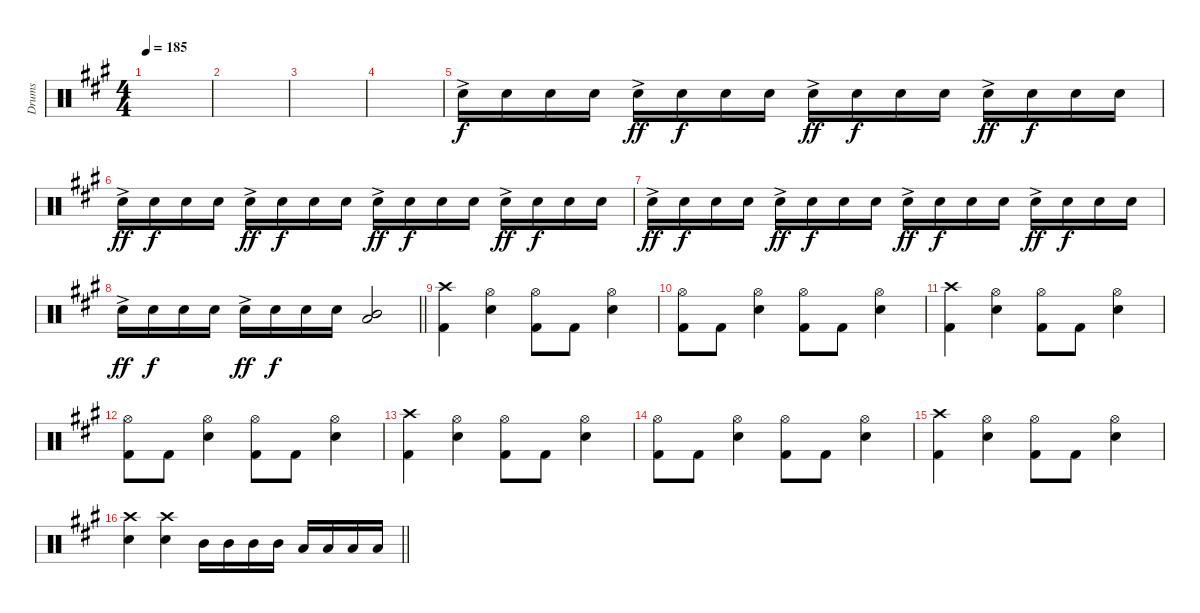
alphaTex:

\track ("Drums" "Drums") {instrument percussion}
\staff {score}
\articulation defaults
\ts (4 4)
\tempo 185
\clef neutral
\ks a
|
|
|
|
"Electric Snare (hit)"{ac}.16 "Electric Snare (hit)".16{dy f} "Electric Snare (hit)".16 "Electric Snare (hit)".16 "Electric Snare (hit)"{ac}.16{dy ff} "Electric Snare (hit)".16{dy f} "Electric Snare (hit)".16 "Electric Snare (hit)".16 "Electric Snare (hit)"{ac}.16{dy ff} "Electric Snare (hit)".16{dy f} "Electric Snare (hit)".16 "Electric Snare (hit)".16 "Electric Snare (hit)"{ac}.16{dy ff} "Electric Snare (hit)".16{dy f} "Electric Snare (hit)".16 "Electric Snare (hit)".16 |
"Electric Snare (hit)"{ac}.16{dy ff} "Electric Snare (hit)".16{dy f} "Electric Snare (hit)".16 "Electric Snare (hit)".16 "Electric Snare (hit)"{ac}.16{dy ff} "Electric Snare (hit)".16{dy f} "Electric Snare (hit)".16 "Electric Snare (hit)".16 "Electric Snare (hit)"{ac}.16{dy ff} "Electric Snare (hit)".16{dy f} "Electric Snare (hit)".16 "Electric Snare (hit)".16 "Electric Snare (hit)"{ac}.16{dy ff} "Electric Snare (hit)".16{dy f} "Electric Snare (hit)".16 "Electric Snare (hit)".16 |
"Electric Snare (hit)"{ac}.16{dy ff} "Electric Snare (hit)".16{dy f} "Electric Snare (hit)".16 "Electric Snare (hit)".16 "Electric Snare (hit)"{ac}.16{dy ff} "Electric Snare (hit)".16{dy f} "Electric Snare (hit)".16 "Electric Snare (hit)".16 "Electric Snare (hit)"{ac}.16{dy ff} "Electric Snare (hit)".16{dy f} "Electric Snare (hit)".16 "Electric Snare (hit)".16 "Electric Snare (hit)"{ac}.16{dy ff} "Electric Snare (hit)".16{dy f} "Electric Snare (hit)".16 "Electric Snare (hit)".16 |
\barLineRight lightlight "Electric Snare (hit)"{ac}.16{dy ff} "Electric Snare (hit)".16{dy f} "Electric Snare (hit)".16 "Electric Snare (hit)".16 "Electric Snare (hit)"{ac}.16{dy ff} "Electric Snare (hit)".16{dy f} "Electric Snare (hit)".16 "Electric Snare (hit)".16
("Mid Tom (hit)" "Low Tom (hit)").2 |
("Crash high (hit)" "Kick (hit) 2").4 ("Hi-Hat (open)" "Electric Snare (hit)").4 ("Hi-Hat (open)" "Kick (hit) 2").8 "Kick (hit) 2".8 ("Hi-Hat (open)" "Electric Snare (hit)").4 |
("Hi-Hat (open)" "Kick (hit) 2").8 "Kick (hit) 2".8 ("Hi-Hat (open)" "Electric Snare (hit)").4 ("Hi-Hat (open)" "Kick (hit) 2").8 "Kick (hit) 2".8 ("Hi-Hat (open)" "Electric Snare (hit)").4 |
("Crash high (hit)" "Kick (hit) 2").4 ("Hi-Hat (open)" "Electric Snare (hit)").4 ("Hi-Hat (open)" "Kick (hit) 2").8 "Kick (hit) 2".8 ("Hi-Hat (open)" "Electric Snare (hit)").4 |
("Hi-Hat (open)" "Kick (hit) 2").8 "Kick (hit) 2".8 ("Hi-Hat (open)" "Electric Snare (hit)").4 ("Hi-Hat (open)" "Kick (hit) 2").8 "Kick (hit) 2".8 ("Hi-Hat (open)" "Electric Snare (hit)").4 |
("Crash high (hit)" "Kick (hit) 2").4 ("Hi-Hat (open)" "Electric Snare (hit)").4 ("Hi-Hat (open)" "Kick (hit) 2").8 "Kick (hit) 2".8 ("Hi-Hat (open)" "Electric Snare (hit)").4 |
("Hi-Hat (open)" "Kick (hit) 2").8 "Kick (hit) 2".8 ("Hi-Hat (open)" "Electric Snare (hit)").4 ("Hi-Hat (open)" "Kick (hit) 2").8 "Kick (hit) 2".8 ("Hi-Hat (open)" "Electric Snare (hit)").4 |
("Crash high (hit)" "Kick (hit) 2").4 ("Hi-Hat (open)" "Electric Snare (hit)").4 ("Hi-Hat (open)" "Kick (hit) 2").8 "Kick (hit) 2".8 ("Hi-Hat (open)" "Electric Snare (hit)").4 |
\barLineRight lightlight
("Crash high (hit)" "Electric Snare (hit)").4 ("Crash high (hit)" "Electric Snare (hit)").4 "Mid Tom (hit)".16 "Mid Tom (hit)".16 "Mid Tom (hit)".16 "Mid Tom (hit)".16 "Low Tom (hit)".16 "Low Tom (hit)".16 "Low Tom (hit)".16 "Low Tom (hit)".16
